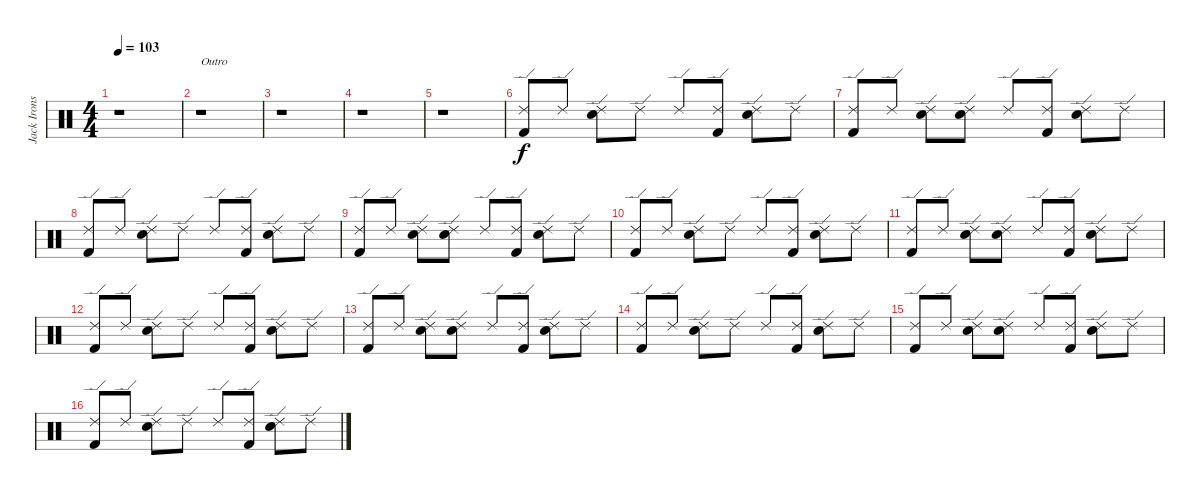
\track ("Jack Irons" "Jack Irons") {instrument percussion}
\staff {score}
\articulation defaults
\ts (4 4)
\tempo 103
\clef neutral
\ks c
r.1{dy f} |
r.1{txt "Outro"} |
r.1 |
r.1 |
r.1 |
("Ride (edge) 2" "Kick (hit) 2").8 "Ride (edge) 2".8 ("Ride (edge) 2" "Snare (hit) 2").8 "Ride (edge) 2".8 "Ride (edge) 2".8 ("Ride (edge) 2" "Kick (hit) 2").8 ("Ride (edge) 2" "Snare (hit) 2").8 "Ride (edge) 2".8 |
("Ride (edge) 2" "Kick (hit) 2").8 "Ride (edge) 2".8 ("Ride (edge) 2" "Snare (hit) 2").8 ("Ride (edge) 2" "Snare (hit) 2").8 "Ride (edge) 2".8 ("Ride (edge) 2" "Kick (hit) 2").8 ("Ride (edge) 2" "Snare (hit) 2").8 "Ride (edge) 2".8 |
("Ride (edge) 2" "Kick (hit) 2").8 "Ride (edge) 2".8 ("Ride (edge) 2" "Snare (hit) 2").8 "Ride (edge) 2".8 "Ride (edge) 2".8 ("Ride (edge) 2" "Kick (hit) 2").8 ("Ride (edge) 2" "Snare (hit) 2").8 "Ride (edge) 2".8 |
("Ride (edge) 2" "Kick (hit) 2").8 "Ride (edge) 2".8 ("Ride (edge) 2" "Snare (hit) 2").8 ("Ride (edge) 2" "Snare (hit) 2").8 "Ride (edge) 2".8 ("Ride (edge) 2" "Kick (hit) 2").8 ("Ride (edge) 2" "Snare (hit) 2").8 "Ride (edge) 2".8 |
("Ride (edge) 2" "Kick (hit) 2").8 "Ride (edge) 2".8 ("Ride (edge) 2" "Snare (hit) 2").8 "Ride (edge) 2".8 "Ride (edge) 2".8 ("Ride (edge) 2" "Kick (hit) 2").8 ("Ride (edge) 2" "Snare (hit) 2").8 "Ride (edge) 2".8 |
("Ride (edge) 2" "Kick (hit) 2").8 "Ride (edge) 2".8 ("Ride (edge) 2" "Snare (hit) 2").8 ("Ride (edge) 2" "Snare (hit) 2").8 "Ride (edge) 2".8 ("Ride (edge) 2" "Kick (hit) 2").8 ("Ride (edge) 2" "Snare (hit) 2").8 "Ride (edge) 2".8 |
("Ride (edge) 2" "Kick (hit) 2").8 "Ride (edge) 2".8 ("Ride (edge) 2" "Snare (hit) 2").8 "Ride (edge) 2".8 "Ride (edge) 2".8 ("Ride (edge) 2" "Kick (hit) 2").8 ("Ride (edge) 2" "Snare (hit) 2").8 "Ride (edge) 2".8 |
("Ride (edge) 2" "Kick (hit) 2").8 "Ride (edge) 2".8 ("Ride (edge) 2" "Snare (hit) 2").8 ("Ride (edge) 2" "Snare (hit) 2").8 "Ride (edge) 2".8 ("Ride (edge) 2" "Kick (hit) 2").8 ("Ride (edge) 2" "Snare (hit) 2").8 "Ride (edge) 2".8 |
("Ride (edge) 2" "Kick (hit) 2").8 "Ride (edge) 2".8 ("Ride (edge) 2" "Snare (hit) 2").8 "Ride (edge) 2".8 "Ride (edge) 2".8 ("Ride (edge) 2" "Kick (hit) 2").8 ("Ride (edge) 2" "Snare (hit) 2").8 "Ride (edge) 2".8 |
("Ride (edge) 2" "Kick (hit) 2").8 "Ride (edge) 2".8 ("Ride (edge) 2" "Snare (hit) 2").8 ("Ride (edge) 2" "Snare (hit) 2").8 "Ride (edge) 2".8 ("Ride (edge) 2" "Kick (hit) 2").8 ("Ride (edge) 2" "Snare (hit) 2").8 "Ride (edge) 2".8 |
("Ride (edge) 2" "Kick (hit) 2").8 "Ride (edge) 2".8 ("Ride (edge) 2" "Snare (hit) 2").8 "Ride (edge) 2".8 "Ride (edge) 2".8 ("Ride (edge) 2" "Kick (hit) 2").8 ("Ride (edge) 2" "Snare (hit) 2").8 "Ride (edge) 2".8
